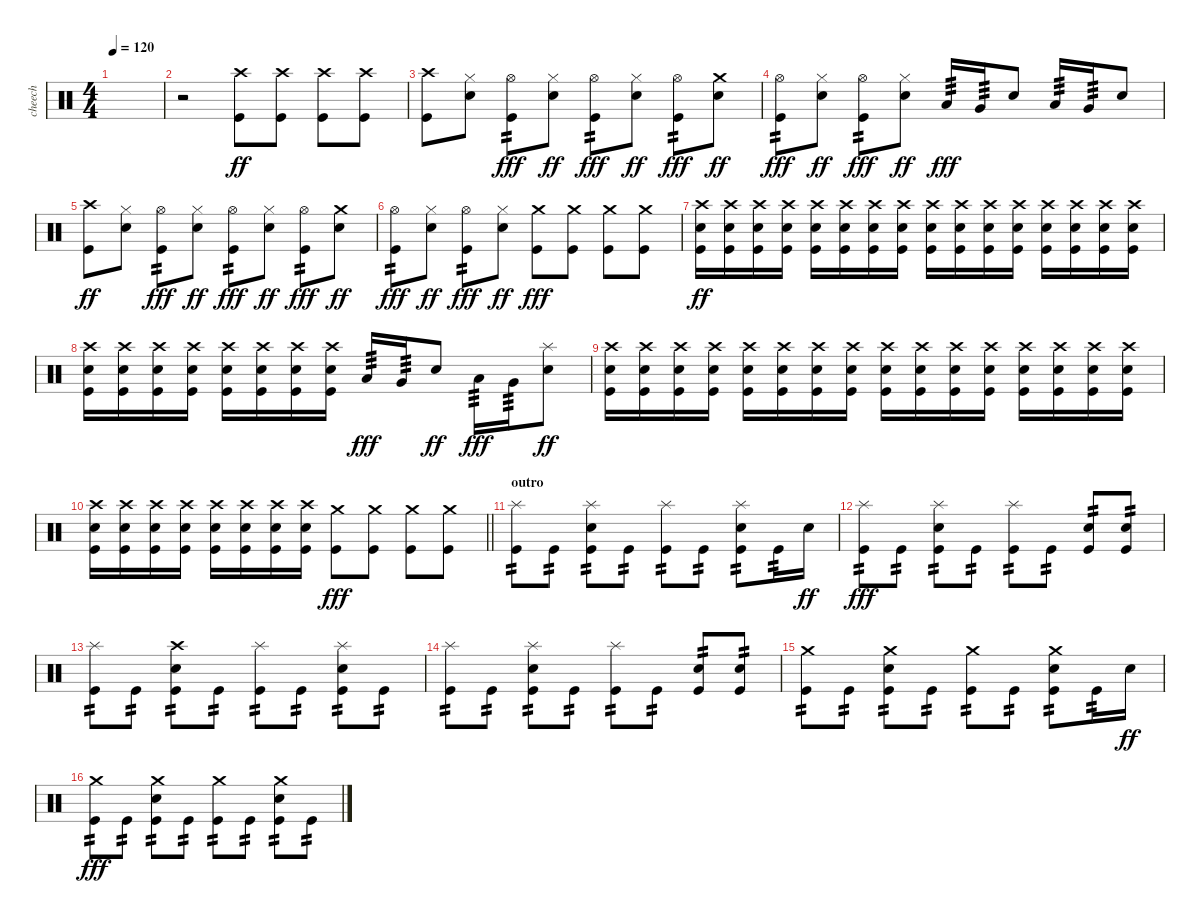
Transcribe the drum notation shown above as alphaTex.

\track ("cheech" "cheech") {instrument percussion}
\staff {score}
\articulation defaults
\ts (4 4)
\tempo 120
\clef neutral
\ks c
|
r.2 ("Crash high (hit)" "Kick (hit)").8{dy ff} ("Crash high (hit)" "Kick (hit)").8 ("Crash high (hit)" "Kick (hit)").8 ("Crash high (hit)" "Kick (hit)").8 |
("Crash high (hit)" "Kick (hit)").8 ("Hi-Hat (closed)" "Electric Snare (hit)").8 ("Hi-Hat (open)" "Kick (hit)").8{tp 2 dy fff} ("Hi-Hat (closed)" "Electric Snare (hit)").8{dy ff} ("Hi-Hat (open)" "Kick (hit)").8{tp 2 dy fff} ("Hi-Hat (closed)" "Electric Snare (hit)").8{dy ff} ("Hi-Hat (open)" "Kick (hit)").8{tp 2 dy fff} ("Crash medium (hit)" "Electric Snare (hit)").8{dy ff} |
("Hi-Hat (open)" "Kick (hit)").8{tp 2 dy fff} ("Hi-Hat (closed)" "Electric Snare (hit)").8{dy ff} ("Hi-Hat (open)" "Kick (hit)").8{tp 2 dy fff} ("Hi-Hat (closed)" "Electric Snare (hit)").8{dy ff} "Low Tom (hit)".16{tp 3 dy fff} "Very Low Tom (hit)".16{tp 3} "Electric Snare (hit)".8 "Low Tom (hit)".16{tp 3} "Very Low Tom (hit)".16{tp 3} "Electric Snare (hit)".8 |
("Crash high (hit)" "Kick (hit)").8{dy ff} ("Hi-Hat (closed)" "Electric Snare (hit)").8 ("Hi-Hat (open)" "Kick (hit)").8{tp 2 dy fff} ("Hi-Hat (closed)" "Electric Snare (hit)").8{dy ff} ("Hi-Hat (open)" "Kick (hit)").8{tp 2 dy fff} ("Hi-Hat (closed)" "Electric Snare (hit)").8{dy ff} ("Hi-Hat (open)" "Kick (hit)").8{tp 2 dy fff} ("Crash medium (hit)" "Electric Snare (hit)").8{dy ff} |
("Hi-Hat (open)" "Kick (hit)").8{tp 2 dy fff} ("Hi-Hat (closed)" "Electric Snare (hit)").8{dy ff} ("Hi-Hat (open)" "Kick (hit)").8{tp 2 dy fff} ("Hi-Hat (closed)" "Electric Snare (hit)").8{dy ff} ("Crash medium (hit)" "Kick (hit)").8{dy fff} ("Crash medium (hit)" "Kick (hit)").8 ("Crash medium (hit)" "Kick (hit)").8 ("Crash medium (hit)" "Kick (hit)").8 |
("Crash high (hit)" "Electric Snare (hit)" "Kick (hit)").16{dy ff} ("Crash high (hit)" "Electric Snare (hit)" "Kick (hit)").16 ("Crash high (hit)" "Electric Snare (hit)" "Kick (hit)").16 ("Crash high (hit)" "Electric Snare (hit)" "Kick (hit)").16 ("Crash high (hit)" "Electric Snare (hit)" "Kick (hit)").16 ("Crash high (hit)" "Electric Snare (hit)" "Kick (hit)").16 ("Crash high (hit)" "Electric Snare (hit)" "Kick (hit)").16 ("Crash high (hit)" "Electric Snare (hit)" "Kick (hit)").16 ("Crash high (hit)" "Electric Snare (hit)" "Kick (hit)").16 ("Crash high (hit)" "Electric Snare (hit)" "Kick (hit)").16 ("Crash high (hit)" "Electric Snare (hit)" "Kick (hit)").16 ("Crash high (hit)" "Electric Snare (hit)" "Kick (hit)").16 ("Crash high (hit)" "Electric Snare (hit)" "Kick (hit)").16 ("Crash high (hit)" "Electric Snare (hit)" "Kick (hit)").16 ("Crash high (hit)" "Electric Snare (hit)" "Kick (hit)").16 ("Crash high (hit)" "Electric Snare (hit)" "Kick (hit)").16 |
("Crash high (hit)" "Electric Snare (hit)" "Kick (hit)").16 ("Crash high (hit)" "Electric Snare (hit)" "Kick (hit)").16 ("Crash high (hit)" "Electric Snare (hit)" "Kick (hit)").16 ("Crash high (hit)" "Electric Snare (hit)" "Kick (hit)").16 ("Crash high (hit)" "Electric Snare (hit)" "Kick (hit)").16 ("Crash high (hit)" "Electric Snare (hit)" "Kick (hit)").16 ("Crash high (hit)" "Electric Snare (hit)" "Kick (hit)").16 ("Crash high (hit)" "Electric Snare (hit)" "Kick (hit)").16 "Low Tom (hit)".16{tp 3 dy fff} "Very Low Tom (hit)".16{tp 3} "Electric Snare (hit)".8{dy ff} "Low Tom (hit)".16{tp 3 dy fff} "Very Low Tom (hit)".16{tp 3} ("Splash (hit)" "Electric Snare (hit)").8{dy ff} |
("Crash high (hit)" "Electric Snare (hit)" "Kick (hit)").16 ("Crash high (hit)" "Electric Snare (hit)" "Kick (hit)").16 ("Crash high (hit)" "Electric Snare (hit)" "Kick (hit)").16 ("Crash high (hit)" "Electric Snare (hit)" "Kick (hit)").16 ("Crash high (hit)" "Electric Snare (hit)" "Kick (hit)").16 ("Crash high (hit)" "Electric Snare (hit)" "Kick (hit)").16 ("Crash high (hit)" "Electric Snare (hit)" "Kick (hit)").16 ("Crash high (hit)" "Electric Snare (hit)" "Kick (hit)").16 ("Crash high (hit)" "Electric Snare (hit)" "Kick (hit)").16 ("Crash high (hit)" "Electric Snare (hit)" "Kick (hit)").16 ("Crash high (hit)" "Electric Snare (hit)" "Kick (hit)").16 ("Crash high (hit)" "Electric Snare (hit)" "Kick (hit)").16 ("Crash high (hit)" "Electric Snare (hit)" "Kick (hit)").16 ("Crash high (hit)" "Electric Snare (hit)" "Kick (hit)").16 ("Crash high (hit)" "Electric Snare (hit)" "Kick (hit)").16 ("Crash high (hit)" "Electric Snare (hit)" "Kick (hit)").16 |
\barLineRight lightlight
("Crash high (hit)" "Electric Snare (hit)" "Kick (hit)").16 ("Crash high (hit)" "Electric Snare (hit)" "Kick (hit)").16 ("Crash high (hit)" "Electric Snare (hit)" "Kick (hit)").16 ("Crash high (hit)" "Electric Snare (hit)" "Kick (hit)").16 ("Crash high (hit)" "Electric Snare (hit)" "Kick (hit)").16 ("Crash high (hit)" "Electric Snare (hit)" "Kick (hit)").16 ("Crash high (hit)" "Electric Snare (hit)" "Kick (hit)").16 ("Crash high (hit)" "Electric Snare (hit)" "Kick (hit)").16 ("Crash medium (hit)" "Kick (hit)").8{dy fff} ("Crash medium (hit)" "Kick (hit)").8 ("Crash medium (hit)" "Kick (hit)").8 ("Crash medium (hit)" "Kick (hit)").8 |
\section ("" "outro")
("Splash (hit)" "Kick (hit)").8{tp 2} "Kick (hit)".8{tp 2} ("Splash (hit)" "Electric Snare (hit)" "Kick (hit)").8{tp 2} "Kick (hit)".8{tp 2} ("Splash (hit)" "Kick (hit)").8{tp 2} "Kick (hit)".8{tp 2} ("Splash (hit)" "Electric Snare (hit)" "Kick (hit)").8{tp 2} "Kick (hit)".16{tp 2} "Electric Snare (hit)".16{dy ff} |
("Splash (hit)" "Kick (hit)").8{tp 2 dy fff} "Kick (hit)".8{tp 2} ("Splash (hit)" "Electric Snare (hit)" "Kick (hit)").8{tp 2} "Kick (hit)".8{tp 2} ("Splash (hit)" "Kick (hit)").8{tp 2} "Kick (hit)".8{tp 2} ("Electric Snare (hit)" "Kick (hit)").8{tp 2} ("Electric Snare (hit)" "Kick (hit)").8{tp 2} |
("Splash (hit)" "Kick (hit)").8{tp 2} "Kick (hit)".8{tp 2} ("Crash high (hit)" "Electric Snare (hit)" "Kick (hit)").8{tp 2} "Kick (hit)".8{tp 2} ("Splash (hit)" "Kick (hit)").8{tp 2} "Kick (hit)".8{tp 2} ("Splash (hit)" "Electric Snare (hit)" "Kick (hit)").8{tp 2} "Kick (hit)".8{tp 2} |
("Splash (hit)" "Kick (hit)").8{tp 2} "Kick (hit)".8{tp 2} ("Splash (hit)" "Electric Snare (hit)" "Kick (hit)").8{tp 2} "Kick (hit)".8{tp 2} ("Splash (hit)" "Kick (hit)").8{tp 2} "Kick (hit)".8{tp 2} ("Electric Snare (hit)" "Kick (hit)").8{tp 2} ("Electric Snare (hit)" "Kick (hit)").8{tp 2} |
("Crash medium (hit)" "Kick (hit)").8{tp 2} "Kick (hit)".8{tp 2} ("Crash medium (hit)" "Electric Snare (hit)" "Kick (hit)").8{tp 2} "Kick (hit)".8{tp 2} ("Crash medium (hit)" "Kick (hit)").8{tp 2} "Kick (hit)".8{tp 2} ("Crash medium (hit)" "Electric Snare (hit)" "Kick (hit)").8{tp 2} "Kick (hit)".16{tp 2} "Electric Snare (hit)".16{dy ff} |
("Crash medium (hit)" "Kick (hit)").8{tp 2 dy fff} "Kick (hit)".8{tp 2} ("Crash medium (hit)" "Electric Snare (hit)" "Kick (hit)").8{tp 2} "Kick (hit)".8{tp 2} ("Crash medium (hit)" "Kick (hit)").8{tp 2} "Kick (hit)".8{tp 2} ("Crash medium (hit)" "Electric Snare (hit)" "Kick (hit)").8{tp 2} "Kick (hit)".8{tp 2}
